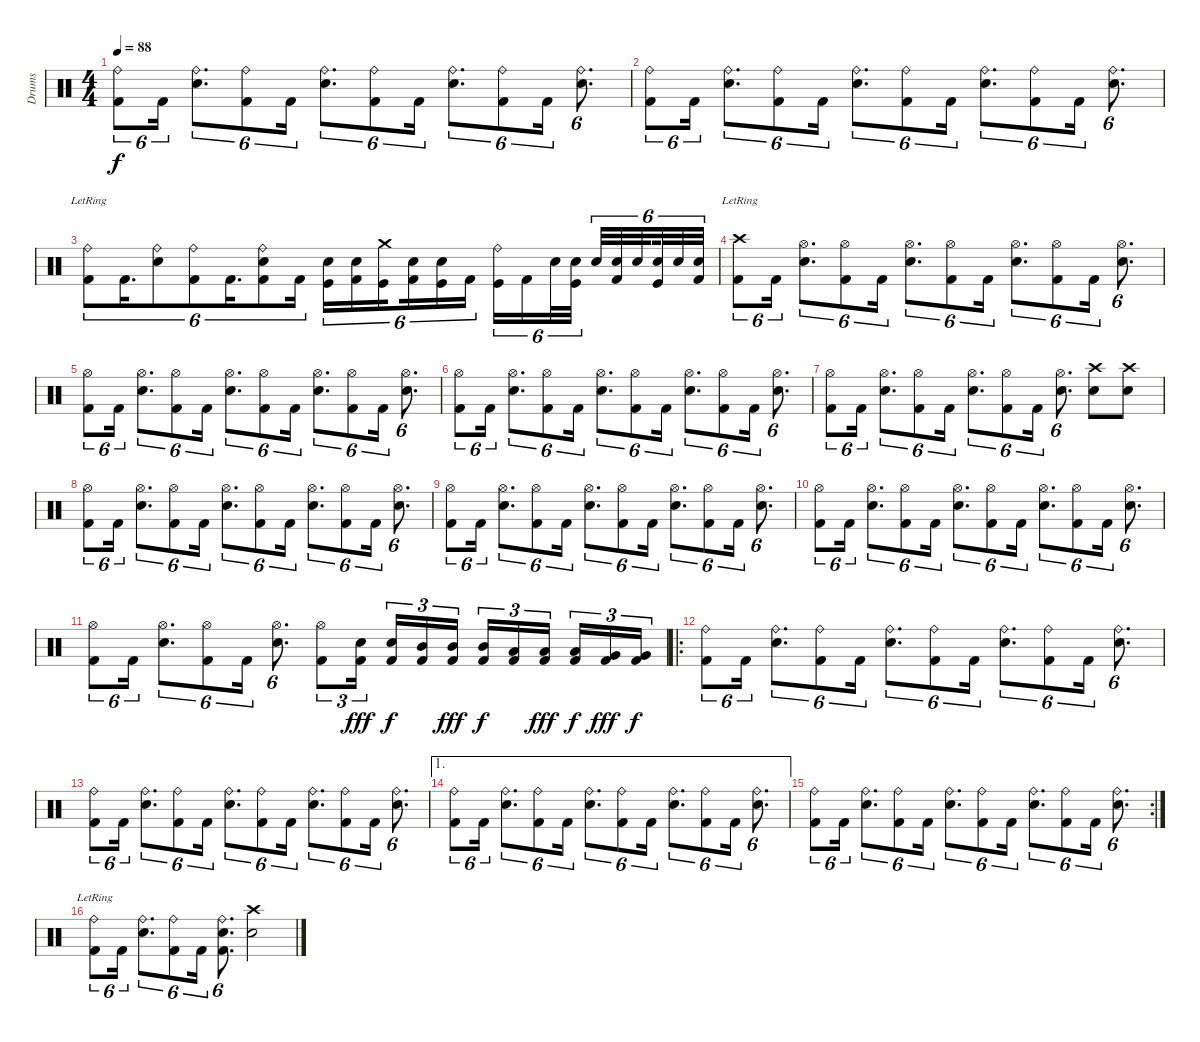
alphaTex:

\track ("Drums" "Drums") {instrument percussion}
\staff {score}
\articulation defaults
\ts (4 4)
\tempo 88
\clef neutral
\ks c
("Ride (bell)" "Kick (hit) 2").8{tu (6 4) dy f} "Kick (hit) 2".16{tu (6 4)} ("Ride (bell)" "Snare (hit) 2").8{d tu (6 4)} ("Ride (bell)" "Kick (hit) 2").8{tu (6 4)} "Kick (hit) 2".16{tu (6 4)} ("Ride (bell)" "Snare (hit) 2").8{d tu (6 4)} ("Ride (bell)" "Kick (hit) 2").8{tu (6 4)} "Kick (hit) 2".16{tu (6 4)} ("Ride (bell)" "Snare (hit) 2").8{d tu (6 4)} ("Ride (bell)" "Kick (hit) 2").8{tu (6 4)} "Kick (hit) 2".16{tu (6 4)} ("Ride (bell)" "Snare (hit) 2").8{d tu (6 4)} |
("Ride (bell)" "Kick (hit) 2").8{tu (6 4)} "Kick (hit) 2".16{tu (6 4)} ("Ride (bell)" "Snare (hit) 2").8{d tu (6 4)} ("Ride (bell)" "Kick (hit) 2").8{tu (6 4)} "Kick (hit) 2".16{tu (6 4)} ("Ride (bell)" "Snare (hit) 2").8{d tu (6 4)} ("Ride (bell)" "Kick (hit) 2").8{tu (6 4)} "Kick (hit) 2".16{tu (6 4)} ("Ride (bell)" "Snare (hit) 2").8{d tu (6 4)} ("Ride (bell)" "Kick (hit) 2").8{tu (6 4)} "Kick (hit) 2".16{tu (6 4)} ("Ride (bell)" "Snare (hit) 2").8{d tu (6 4)} |
("Ride (bell)"{lr} "Kick (hit) 2").8{tu (6 4)} "Kick (hit) 2".16{d tu (6 4)} ("Ride (bell)" "Snare (hit) 2").8{tu (6 4)} ("Ride (bell)" "Kick (hit) 2").8{tu (6 4)} "Kick (hit) 2".16{d tu (6 4)} ("Ride (bell)" "Snare (hit) 2" "Kick (hit) 2").8{tu (6 4)} "Kick (hit) 2".16{tu (6 4)} ("Snare (hit) 2" "Kick (hit)").16{tu (6 4)} ("Snare (hit) 2" "Kick (hit) 2").16{tu (6 4)} ("Crash medium (hit)" "Kick (hit)").16{tu (6 4) beam splitsecondary} ("Snare (hit) 2" "Kick (hit) 2").16{tu (6 4)} ("Snare (hit) 2" "Kick (hit)").16{tu (6 4)} "Kick (hit) 2".16{tu (6 4)} ("Ride (bell)" "Kick (hit)").16{tu (6 4)} "Kick (hit) 2".16{tu (6 4)} "Snare (hit) 2".32{tu (6 4)} ("Snare (hit) 2" "Kick (hit)").32{tu (6 4) beam splitsecondary} "Snare (hit) 2".32{tu (6 4)} ("Snare (hit) 2" "Kick (hit) 2").32{tu (6 4)} "Snare (hit) 2".32{tu (6 4) beam splitsecondary} ("Snare (hit) 2" "Kick (hit)").32{tu (6 4)} "Snare (hit) 2".32{tu (6 4)} ("Snare (hit) 2" "Kick (hit) 2").32{tu (6 4)} |
("Crash high (hit)"{lr} "Kick (hit) 2").8{tu (6 4)} "Kick (hit) 2".16{tu (6 4)} ("Hi-Hat (open)" "Snare (hit) 2").8{d tu (6 4)} ("Hi-Hat (open)" "Kick (hit) 2").8{tu (6 4)} "Kick (hit) 2".16{tu (6 4)} ("Hi-Hat (open)" "Snare (hit) 2").8{d tu (6 4)} ("Hi-Hat (open)" "Kick (hit) 2").8{tu (6 4)} "Kick (hit) 2".16{tu (6 4)} ("Hi-Hat (open)" "Snare (hit) 2").8{d tu (6 4)} ("Hi-Hat (open)" "Kick (hit) 2").8{tu (6 4)} "Kick (hit) 2".16{tu (6 4)} ("Hi-Hat (open)" "Snare (hit) 2").8{d tu (6 4)} |
("Hi-Hat (open)" "Kick (hit) 2").8{tu (6 4)} "Kick (hit) 2".16{tu (6 4)} ("Hi-Hat (open)" "Snare (hit) 2").8{d tu (6 4)} ("Hi-Hat (open)" "Kick (hit) 2").8{tu (6 4)} "Kick (hit) 2".16{tu (6 4)} ("Hi-Hat (open)" "Snare (hit) 2").8{d tu (6 4)} ("Hi-Hat (open)" "Kick (hit) 2").8{tu (6 4)} "Kick (hit) 2".16{tu (6 4)} ("Hi-Hat (open)" "Snare (hit) 2").8{d tu (6 4)} ("Hi-Hat (open)" "Kick (hit) 2").8{tu (6 4)} "Kick (hit) 2".16{tu (6 4)} ("Hi-Hat (open)" "Snare (hit) 2").8{d tu (6 4)} |
("Hi-Hat (open)" "Kick (hit) 2").8{tu (6 4)} "Kick (hit) 2".16{tu (6 4)} ("Hi-Hat (open)" "Snare (hit) 2").8{d tu (6 4)} ("Hi-Hat (open)" "Kick (hit) 2").8{tu (6 4)} "Kick (hit) 2".16{tu (6 4)} ("Hi-Hat (open)" "Snare (hit) 2").8{d tu (6 4)} ("Hi-Hat (open)" "Kick (hit) 2").8{tu (6 4)} "Kick (hit) 2".16{tu (6 4)} ("Hi-Hat (open)" "Snare (hit) 2").8{d tu (6 4)} ("Hi-Hat (open)" "Kick (hit) 2").8{tu (6 4)} "Kick (hit) 2".16{tu (6 4)} ("Hi-Hat (open)" "Snare (hit) 2").8{d tu (6 4)} |
("Hi-Hat (open)" "Kick (hit) 2").8{tu (6 4)} "Kick (hit) 2".16{tu (6 4)} ("Hi-Hat (open)" "Snare (hit) 2").8{d tu (6 4)} ("Hi-Hat (open)" "Kick (hit) 2").8{tu (6 4)} "Kick (hit) 2".16{tu (6 4)} ("Hi-Hat (open)" "Snare (hit) 2").8{d tu (6 4)} ("Hi-Hat (open)" "Kick (hit) 2").8{tu (6 4)} "Kick (hit) 2".16{tu (6 4)} ("Hi-Hat (open)" "Snare (hit) 2").8{d tu (6 4)} ("Crash high (hit)" "Snare (hit) 2").8 ("Crash high (hit)" "Snare (hit) 2").8 |
("Hi-Hat (open)" "Kick (hit) 2").8{tu (6 4)} "Kick (hit) 2".16{tu (6 4)} ("Hi-Hat (open)" "Snare (hit) 2").8{d tu (6 4)} ("Hi-Hat (open)" "Kick (hit) 2").8{tu (6 4)} "Kick (hit) 2".16{tu (6 4)} ("Hi-Hat (open)" "Snare (hit) 2").8{d tu (6 4)} ("Hi-Hat (open)" "Kick (hit) 2").8{tu (6 4)} "Kick (hit) 2".16{tu (6 4)} ("Hi-Hat (open)" "Snare (hit) 2").8{d tu (6 4)} ("Hi-Hat (open)" "Kick (hit) 2").8{tu (6 4)} "Kick (hit) 2".16{tu (6 4)} ("Hi-Hat (open)" "Snare (hit) 2").8{d tu (6 4)} |
("Hi-Hat (open)" "Kick (hit) 2").8{tu (6 4)} "Kick (hit) 2".16{tu (6 4)} ("Hi-Hat (open)" "Snare (hit) 2").8{d tu (6 4)} ("Hi-Hat (open)" "Kick (hit) 2").8{tu (6 4)} "Kick (hit) 2".16{tu (6 4)} ("Hi-Hat (open)" "Snare (hit) 2").8{d tu (6 4)} ("Hi-Hat (open)" "Kick (hit) 2").8{tu (6 4)} "Kick (hit) 2".16{tu (6 4)} ("Hi-Hat (open)" "Snare (hit) 2").8{d tu (6 4)} ("Hi-Hat (open)" "Kick (hit) 2").8{tu (6 4)} "Kick (hit) 2".16{tu (6 4)} ("Hi-Hat (open)" "Snare (hit) 2").8{d tu (6 4)} |
("Hi-Hat (open)" "Kick (hit) 2").8{tu (6 4)} "Kick (hit) 2".16{tu (6 4)} ("Hi-Hat (open)" "Snare (hit) 2").8{d tu (6 4)} ("Hi-Hat (open)" "Kick (hit) 2").8{tu (6 4)} "Kick (hit) 2".16{tu (6 4)} ("Hi-Hat (open)" "Snare (hit) 2").8{d tu (6 4)} ("Hi-Hat (open)" "Kick (hit) 2").8{tu (6 4)} "Kick (hit) 2".16{tu (6 4)} ("Hi-Hat (open)" "Snare (hit) 2").8{d tu (6 4)} ("Hi-Hat (open)" "Kick (hit) 2").8{tu (6 4)} "Kick (hit) 2".16{tu (6 4)} ("Hi-Hat (open)" "Snare (hit) 2").8{d tu (6 4)} |
("Hi-Hat (open)" "Kick (hit) 2").8{tu (6 4)} "Kick (hit) 2".16{tu (6 4)} ("Hi-Hat (open)" "Snare (hit) 2").8{d tu (6 4)} ("Hi-Hat (open)" "Kick (hit) 2").8{tu (6 4)} "Kick (hit) 2".16{tu (6 4)} ("Hi-Hat (open)" "Snare (hit) 2").8{d tu (6 4)} ("Hi-Hat (open)" "Kick (hit) 2").8{tu (3 2)} ("Snare (hit) 2" "Kick (hit) 2").16{tu (3 2) dy fff beam splitsecondary} ("Snare (hit) 2" "Kick (hit) 2").16{tu (3 2) dy f} ("Mid Tom (hit)" "Kick (hit) 2").16{tu (3 2)} ("Mid Tom (hit)" "Kick (hit) 2").16{tu (3 2) dy fff} ("Mid Tom (hit)" "Kick (hit) 2").16{tu (3 2) dy f} ("Low Tom (hit)" "Kick (hit) 2").16{tu (3 2)} ("Low Tom (hit)" "Kick (hit) 2").16{tu (3 2) dy fff beam splitsecondary} ("Low Tom (hit)" "Kick (hit) 2").16{tu (3 2) dy f} ("Very Low Tom (hit)" "Kick (hit) 2").16{tu (3 2) dy fff} ("Very Low Tom (hit)" "Kick (hit) 2").16{tu (3 2) dy f} |
\ro
("Ride (bell)" "Kick (hit) 2").8{tu (6 4)} "Kick (hit) 2".16{tu (6 4)} ("Ride (bell)" "Snare (hit) 2").8{d tu (6 4)} ("Ride (bell)" "Kick (hit) 2").8{tu (6 4)} "Kick (hit) 2".16{tu (6 4)} ("Ride (bell)" "Snare (hit) 2").8{d tu (6 4)} ("Ride (bell)" "Kick (hit) 2").8{tu (6 4)} "Kick (hit) 2".16{tu (6 4)} ("Ride (bell)" "Snare (hit) 2").8{d tu (6 4)} ("Ride (bell)" "Kick (hit) 2").8{tu (6 4)} "Kick (hit) 2".16{tu (6 4)} ("Ride (bell)" "Snare (hit) 2").8{d tu (6 4)} |
("Ride (bell)" "Kick (hit) 2").8{tu (6 4)} "Kick (hit) 2".16{tu (6 4)} ("Ride (bell)" "Snare (hit) 2").8{d tu (6 4)} ("Ride (bell)" "Kick (hit) 2").8{tu (6 4)} "Kick (hit) 2".16{tu (6 4)} ("Ride (bell)" "Snare (hit) 2").8{d tu (6 4)} ("Ride (bell)" "Kick (hit) 2").8{tu (6 4)} "Kick (hit) 2".16{tu (6 4)} ("Ride (bell)" "Snare (hit) 2").8{d tu (6 4)} ("Ride (bell)" "Kick (hit) 2").8{tu (6 4)} "Kick (hit) 2".16{tu (6 4)} ("Ride (bell)" "Snare (hit) 2").8{d tu (6 4)} |
\ae 1
("Ride (bell)" "Kick (hit) 2").8{tu (6 4)} "Kick (hit) 2".16{tu (6 4)} ("Ride (bell)" "Snare (hit) 2").8{d tu (6 4)} ("Ride (bell)" "Kick (hit) 2").8{tu (6 4)} "Kick (hit) 2".16{tu (6 4)} ("Ride (bell)" "Snare (hit) 2").8{d tu (6 4)} ("Ride (bell)" "Kick (hit) 2").8{tu (6 4)} "Kick (hit) 2".16{tu (6 4)} ("Ride (bell)" "Snare (hit) 2").8{d tu (6 4)} ("Ride (bell)" "Kick (hit) 2").8{tu (6 4)} "Kick (hit) 2".16{tu (6 4)} ("Ride (bell)" "Snare (hit) 2").8{d tu (6 4)} |
\rc 2
("Ride (bell)" "Kick (hit) 2").8{tu (6 4)} "Kick (hit) 2".16{tu (6 4)} ("Ride (bell)" "Snare (hit) 2").8{d tu (6 4)} ("Ride (bell)" "Kick (hit) 2").8{tu (6 4)} "Kick (hit) 2".16{tu (6 4)} ("Ride (bell)" "Snare (hit) 2").8{d tu (6 4)} ("Ride (bell)" "Kick (hit) 2").8{tu (6 4)} "Kick (hit) 2".16{tu (6 4)} ("Ride (bell)" "Snare (hit) 2").8{d tu (6 4)} ("Ride (bell)" "Kick (hit) 2").8{tu (6 4)} "Kick (hit) 2".16{tu (6 4)} ("Ride (bell)" "Snare (hit) 2").8{d tu (6 4)} |
("Ride (bell)"{lr} "Kick (hit) 2").8{tu (6 4)} "Kick (hit) 2".16{tu (6 4)} ("Ride (bell)" "Snare (hit) 2").8{d tu (6 4)} ("Ride (bell)" "Kick (hit) 2").8{tu (6 4)} "Kick (hit) 2".16{tu (6 4)} ("Ride (bell)" "Snare (hit) 2" "Kick (hit) 2").8{d tu (6 4)} ("Crash high (hit)" "Snare (hit) 2").2
